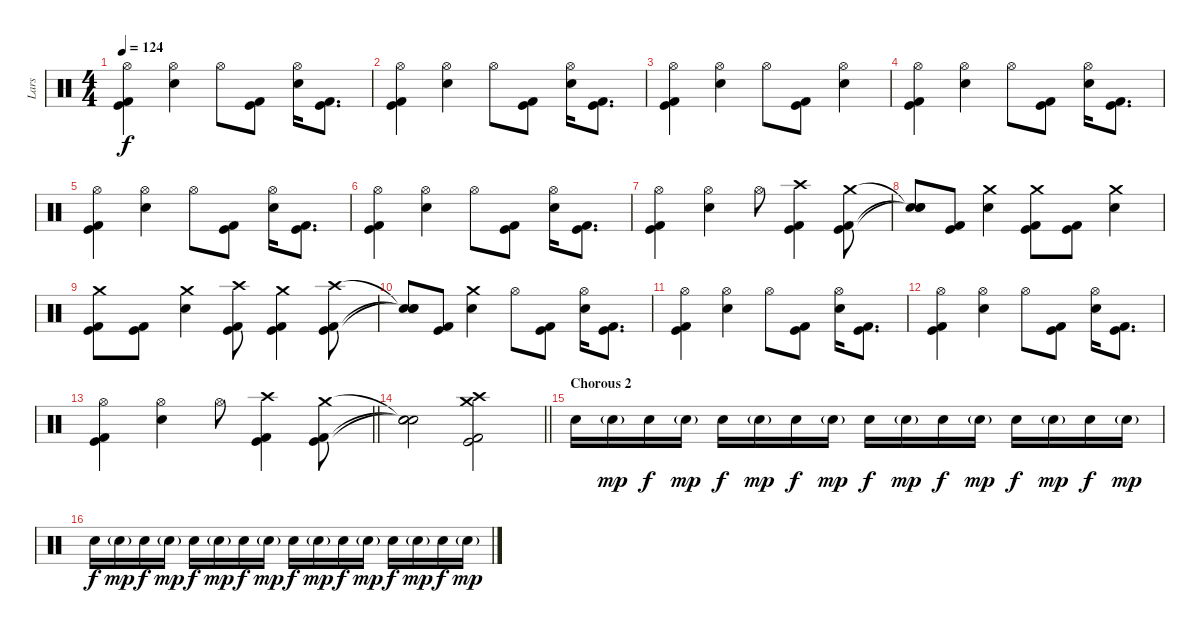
\track ("Lars" "Lars") {instrument percussion}
\staff {score}
\articulation defaults
\ts (4 4)
\tempo 124
\clef neutral
\ks c
("Hi-Hat (open)" "Kick (hit)" "Kick (hit) 2").4{dy f} ("Hi-Hat (open)" "Electric Snare (hit)").4 "Hi-Hat (open)".8 ("Kick (hit)" "Kick (hit) 2").8 ("Hi-Hat (open)" "Electric Snare (hit)").16 ("Kick (hit)" "Kick (hit) 2").8{d} |
("Hi-Hat (open)" "Kick (hit)" "Kick (hit) 2").4 ("Hi-Hat (open)" "Electric Snare (hit)").4 "Hi-Hat (open)".8 ("Kick (hit)" "Kick (hit) 2").8 ("Hi-Hat (open)" "Electric Snare (hit)").16 ("Kick (hit)" "Kick (hit) 2").8{d} |
("Hi-Hat (open)" "Kick (hit)" "Kick (hit) 2").4 ("Hi-Hat (open)" "Electric Snare (hit)").4 "Hi-Hat (open)".8 ("Kick (hit)" "Kick (hit) 2").8 ("Hi-Hat (open)" "Electric Snare (hit)").4 |
("Hi-Hat (open)" "Kick (hit)" "Kick (hit) 2").4 ("Hi-Hat (open)" "Electric Snare (hit)").4 "Hi-Hat (open)".8 ("Kick (hit)" "Kick (hit) 2").8 ("Hi-Hat (open)" "Electric Snare (hit)").16 ("Kick (hit)" "Kick (hit) 2").8{d} |
("Hi-Hat (open)" "Kick (hit)" "Kick (hit) 2").4 ("Hi-Hat (open)" "Electric Snare (hit)").4 "Hi-Hat (open)".8 ("Kick (hit)" "Kick (hit) 2").8 ("Hi-Hat (open)" "Electric Snare (hit)").16 ("Kick (hit)" "Kick (hit) 2").8{d} |
("Hi-Hat (open)" "Kick (hit)" "Kick (hit) 2").4 ("Hi-Hat (open)" "Electric Snare (hit)").4 "Hi-Hat (open)".8 ("Kick (hit)" "Kick (hit) 2").8 ("Hi-Hat (open)" "Electric Snare (hit)").16 ("Kick (hit)" "Kick (hit) 2").8{d} |
("Hi-Hat (open)" "Kick (hit)" "Kick (hit) 2").4 ("Hi-Hat (open)" "Electric Snare (hit)").4 "Hi-Hat (open)".8 ("Crash high (hit)" "Kick (hit)" "Kick (hit) 2").4 ("Crash medium (hit)" "Kick (hit)" "Kick (hit) 2").8 |
("Snare (hit)"{t} "Snare (hit)"{t} "Snare (hit)"{t}).8 ("Kick (hit)" "Kick (hit) 2").8 ("Crash medium (hit)" "Electric Snare (hit)").4 ("Crash medium (hit)" "Kick (hit)" "Kick (hit) 2").8 ("Kick (hit)" "Kick (hit) 2").8 ("Crash medium (hit)" "Electric Snare (hit)").4 |
("Crash medium (hit)" "Kick (hit)" "Kick (hit) 2").8 ("Kick (hit)" "Kick (hit) 2").8 ("Crash medium (hit)" "Electric Snare (hit)").4 ("Crash high (hit)" "Kick (hit)" "Kick (hit) 2").8 ("Crash medium (hit)" "Kick (hit)" "Kick (hit) 2").4 ("Crash high (hit)" "Kick (hit)" "Kick (hit) 2").8 |
("Snare (hit)"{t} "Snare (hit)"{t} "Snare (hit)"{t}).8 ("Kick (hit)" "Kick (hit) 2").8 ("Crash medium (hit)" "Electric Snare (hit)").4 "Hi-Hat (open)".8 ("Kick (hit)" "Kick (hit) 2").8 ("Hi-Hat (open)" "Electric Snare (hit)").16 ("Kick (hit)" "Kick (hit) 2").8{d} |
("Hi-Hat (open)" "Kick (hit)" "Kick (hit) 2").4 ("Hi-Hat (open)" "Electric Snare (hit)").4 "Hi-Hat (open)".8 ("Kick (hit)" "Kick (hit) 2").8 ("Hi-Hat (open)" "Electric Snare (hit)").16 ("Kick (hit)" "Kick (hit) 2").8{d} |
("Hi-Hat (open)" "Kick (hit)" "Kick (hit) 2").4 ("Hi-Hat (open)" "Electric Snare (hit)").4 "Hi-Hat (open)".8 ("Kick (hit)" "Kick (hit) 2").8 ("Hi-Hat (open)" "Electric Snare (hit)").16 ("Kick (hit)" "Kick (hit) 2").8{d} |
\barLineRight lightlight
("Hi-Hat (open)" "Kick (hit)" "Kick (hit) 2").4 ("Hi-Hat (open)" "Electric Snare (hit)").4 "Hi-Hat (open)".8 ("Crash high (hit)" "Kick (hit)" "Kick (hit) 2").4 ("Crash medium (hit)" "Kick (hit)" "Kick (hit) 2").8 |
\barLineRight lightlight
("Snare (hit)"{t} "Snare (hit)"{t} "Snare (hit)"{t}).2 ("Crash medium (hit)" "Crash high (hit)" "Kick (hit)" "Kick (hit) 2").2 |
\section ("" "Chorous 2")
"Electric Snare (hit)".16{volume 10} "Electric Snare (hit)"{g}.16{dy mp} "Electric Snare (hit)".16{dy f} "Electric Snare (hit)"{g}.16{dy mp} "Electric Snare (hit)".16{dy f} "Electric Snare (hit)"{g}.16{dy mp} "Electric Snare (hit)".16{dy f} "Electric Snare (hit)"{g}.16{dy mp} "Electric Snare (hit)".16{dy f} "Electric Snare (hit)"{g}.16{dy mp} "Electric Snare (hit)".16{dy f} "Electric Snare (hit)"{g}.16{dy mp} "Electric Snare (hit)".16{dy f} "Electric Snare (hit)"{g}.16{dy mp} "Electric Snare (hit)".16{dy f} "Electric Snare (hit)"{g}.16{dy mp} |
"Electric Snare (hit)".16{dy f} "Electric Snare (hit)"{g}.16{dy mp} "Electric Snare (hit)".16{dy f} "Electric Snare (hit)"{g}.16{dy mp} "Electric Snare (hit)".16{dy f} "Electric Snare (hit)"{g}.16{dy mp} "Electric Snare (hit)".16{dy f} "Electric Snare (hit)"{g}.16{dy mp} "Electric Snare (hit)".16{dy f} "Electric Snare (hit)"{g}.16{dy mp} "Electric Snare (hit)".16{dy f} "Electric Snare (hit)"{g}.16{dy mp} "Electric Snare (hit)".16{dy f} "Electric Snare (hit)"{g}.16{dy mp} "Electric Snare (hit)".16{dy f} "Electric Snare (hit)"{g}.16{dy mp}
